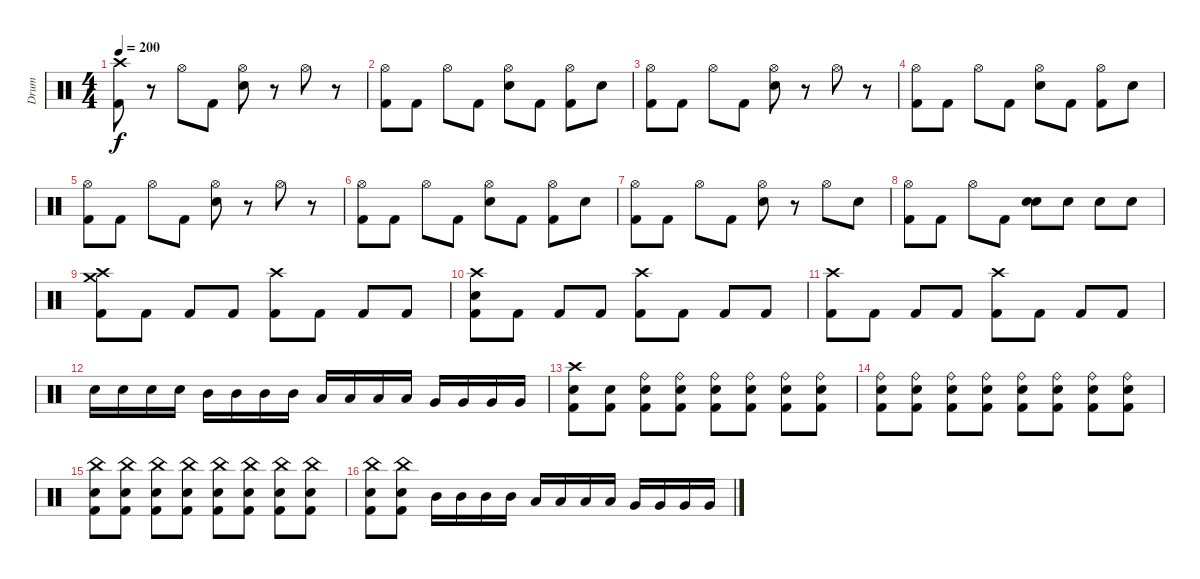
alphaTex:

\track ("Drum" "Drum") {instrument percussion}
\staff {score}
\articulation defaults
\ts (4 4)
\tempo 200
\clef neutral
\ks c
("Crash high (hit)" "Kick (hit) 2").8{dy f} r.8 "Hi-Hat (open)".8 "Kick (hit) 2".8 ("Hi-Hat (open)" "Snare (hit) 2").8 r.8 "Hi-Hat (open)".8 r.8 |
("Hi-Hat (open)" "Kick (hit) 2").8 "Kick (hit) 2".8 "Hi-Hat (open)".8 "Kick (hit) 2".8 ("Hi-Hat (open)" "Snare (hit) 2").8 "Kick (hit) 2".8 ("Hi-Hat (open)" "Kick (hit) 2").8 "Snare (hit) 2".8 |
("Hi-Hat (open)" "Kick (hit) 2").8 "Kick (hit) 2".8 "Hi-Hat (open)".8 "Kick (hit) 2".8 ("Hi-Hat (open)" "Snare (hit) 2").8 r.8 "Hi-Hat (open)".8 r.8 |
("Hi-Hat (open)" "Kick (hit) 2").8 "Kick (hit) 2".8 "Hi-Hat (open)".8 "Kick (hit) 2".8 ("Hi-Hat (open)" "Snare (hit) 2").8 "Kick (hit) 2".8 ("Hi-Hat (open)" "Kick (hit) 2").8 "Snare (hit) 2".8 |
("Hi-Hat (open)" "Kick (hit) 2").8 "Kick (hit) 2".8 "Hi-Hat (open)".8 "Kick (hit) 2".8 ("Hi-Hat (open)" "Snare (hit) 2").8 r.8 "Hi-Hat (open)".8 r.8 |
("Hi-Hat (open)" "Kick (hit) 2").8 "Kick (hit) 2".8 "Hi-Hat (open)".8 "Kick (hit) 2".8 ("Hi-Hat (open)" "Snare (hit) 2").8 "Kick (hit) 2".8 ("Hi-Hat (open)" "Kick (hit) 2").8 "Snare (hit) 2".8 |
("Hi-Hat (open)" "Kick (hit) 2").8 "Kick (hit) 2".8 "Hi-Hat (open)".8 "Kick (hit) 2".8 ("Hi-Hat (open)" "Snare (hit) 2").8 r.8 "Hi-Hat (open)".8 "Snare (hit) 2".8 |
("Hi-Hat (open)" "Kick (hit) 2").8 "Kick (hit) 2".8 "Hi-Hat (open)".8 "Kick (hit) 2".8 ("Snare (hit) 2" "Snare (hit) 2").8{bd 480} "Snare (hit) 2".8 "Snare (hit) 2".8 "Snare (hit) 2".8 |
("Crash medium (hit)" "Crash high (hit)" "Kick (hit) 2").8 "Kick (hit) 2".8 "Kick (hit) 2".8 "Kick (hit) 2".8 ("Crash high (hit)" "Kick (hit) 2").8 "Kick (hit) 2".8 "Kick (hit) 2".8 "Kick (hit) 2".8 |
("Crash high (hit)" "Snare (hit) 2" "Kick (hit) 2").8 "Kick (hit) 2".8 "Kick (hit) 2".8 "Kick (hit) 2".8 ("Crash high (hit)" "Kick (hit) 2").8 "Kick (hit) 2".8 "Kick (hit) 2".8 "Kick (hit) 2".8 |
("Crash high (hit)" "Kick (hit) 2").8 "Kick (hit) 2".8 "Kick (hit) 2".8 "Kick (hit) 2".8 ("Crash high (hit)" "Kick (hit) 2").8 "Kick (hit) 2".8 "Kick (hit) 2".8 "Kick (hit) 2".8 |
"Snare (hit) 2".16 "Snare (hit) 2".16 "Snare (hit) 2".16 "Snare (hit) 2".16 "Mid Tom (hit)".16 "Mid Tom (hit)".16 "Mid Tom (hit)".16 "Mid Tom (hit)".16 "Low Tom (hit)".16 "Low Tom (hit)".16 "Low Tom (hit)".16 "Low Tom (hit)".16 "Very Low Tom (hit)".16 "Very Low Tom (hit)".16 "Very Low Tom (hit)".16 "Very Low Tom (hit)".16 |
("Crash high (hit)" "Snare (hit) 2" "Kick (hit) 2").8 ("Snare (hit) 2" "Kick (hit) 2").8 ("Ride (bell)" "Snare (hit) 2" "Kick (hit) 2").8 ("Ride (bell)" "Snare (hit) 2" "Kick (hit) 2").8 ("Ride (bell)" "Snare (hit) 2" "Kick (hit) 2").8 ("Ride (bell)" "Snare (hit) 2" "Kick (hit) 2").8 ("Ride (bell)" "Snare (hit) 2" "Kick (hit) 2").8 ("Ride (bell)" "Snare (hit) 2" "Kick (hit) 2").8 |
("Ride (bell)" "Snare (hit) 2" "Kick (hit) 2").8 ("Ride (bell)" "Snare (hit) 2" "Kick (hit) 2").8 ("Ride (bell)" "Snare (hit) 2" "Kick (hit) 2").8 ("Ride (bell)" "Snare (hit) 2" "Kick (hit) 2").8 ("Ride (bell)" "Snare (hit) 2" "Kick (hit) 2").8 ("Ride (bell)" "Snare (hit) 2" "Kick (hit) 2").8 ("Ride (bell)" "Snare (hit) 2" "Kick (hit) 2").8 ("Ride (bell)" "Snare (hit) 2" "Kick (hit) 2").8 |
("China (hit)" "Snare (hit) 2" "Kick (hit) 2").8 ("China (hit)" "Snare (hit) 2" "Kick (hit) 2").8 ("China (hit)" "Snare (hit) 2" "Kick (hit) 2").8 ("China (hit)" "Snare (hit) 2" "Kick (hit) 2").8 ("China (hit)" "Snare (hit) 2" "Kick (hit) 2").8 ("China (hit)" "Snare (hit) 2" "Kick (hit) 2").8 ("China (hit)" "Snare (hit) 2" "Kick (hit) 2").8 ("China (hit)" "Snare (hit) 2" "Kick (hit) 2").8 |
("China (hit)" "Snare (hit) 2" "Kick (hit) 2").8 ("China (hit)" "Snare (hit) 2" "Kick (hit) 2").8 "Mid Tom (hit)".16 "Mid Tom (hit)".16 "Mid Tom (hit)".16 "Mid Tom (hit)".16 "Low Tom (hit)".16 "Low Tom (hit)".16 "Low Tom (hit)".16 "Low Tom (hit)".16 "Very Low Tom (hit)".16 "Very Low Tom (hit)".16 "Very Low Tom (hit)".16 "Very Low Tom (hit)".16
